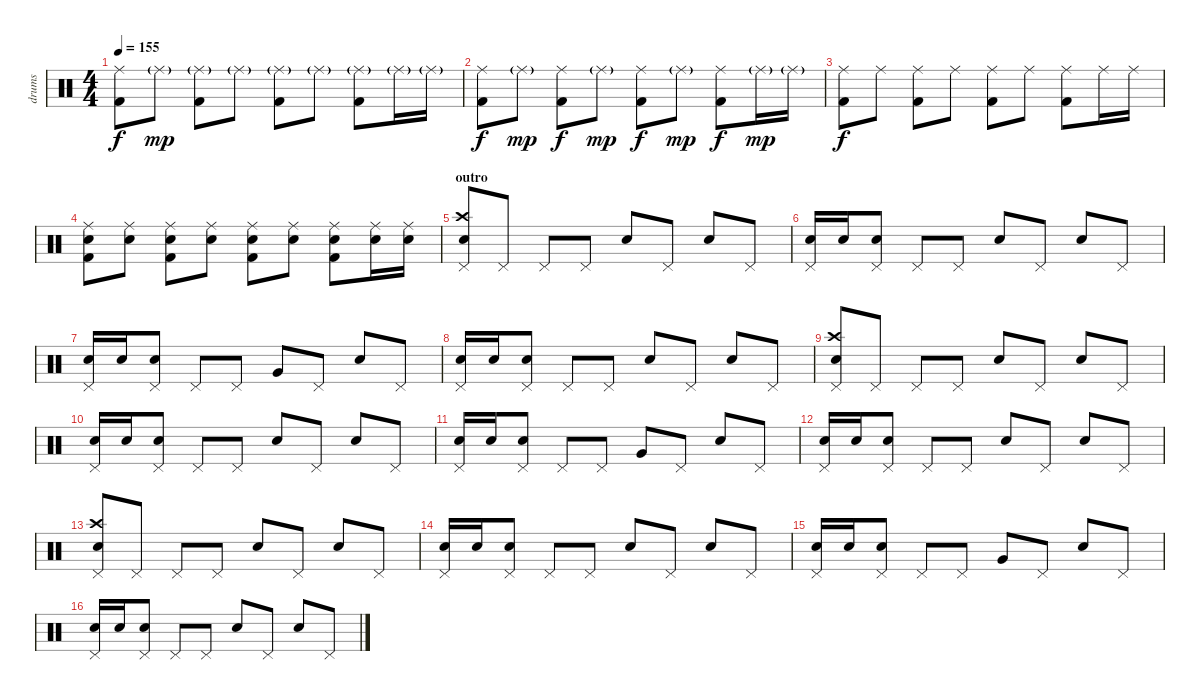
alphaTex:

\track ("drums" "drums") {instrument percussion}
\staff {score}
\articulation defaults
\ts (4 4)
\tempo 155
\clef neutral
\ks c
("Ride (middle)" "Kick (hit) 2").8{dy f} "Ride (middle)"{g}.8{dy mp} ("Ride (middle)"{g} "Kick (hit) 2").8 "Ride (middle)"{g}.8 ("Ride (middle)"{g} "Kick (hit) 2").8 "Ride (middle)"{g}.8 ("Ride (middle)"{g} "Kick (hit) 2").8 "Ride (middle)"{g}.16 "Ride (middle)"{g}.16 |
("Ride (middle)" "Kick (hit) 2").8{dy f} "Ride (middle)"{g}.8{dy mp} ("Ride (middle)" "Kick (hit) 2").8{dy f} "Ride (middle)"{g}.8{dy mp} ("Ride (middle)" "Kick (hit) 2").8{dy f} "Ride (middle)"{g}.8{dy mp} ("Ride (middle)" "Kick (hit) 2").8{dy f} "Ride (middle)"{g}.16{dy mp} "Ride (middle)"{g}.16 |
("Ride (middle)" "Kick (hit) 2").8{dy f} "Ride (middle)".8 ("Ride (middle)" "Kick (hit) 2").8 "Ride (middle)".8 ("Ride (middle)" "Kick (hit) 2").8 "Ride (middle)".8 ("Ride (middle)" "Kick (hit) 2").8 "Ride (middle)".16 "Ride (middle)".16 |
("Electric Snare (hit)" "Ride (middle)" "Kick (hit) 2").8 ("Electric Snare (hit)" "Ride (middle)").8 ("Electric Snare (hit)" "Ride (middle)" "Kick (hit) 2").8 ("Electric Snare (hit)" "Ride (middle)").8 ("Electric Snare (hit)" "Ride (middle)" "Kick (hit) 2").8 ("Electric Snare (hit)" "Ride (middle)").8 ("Electric Snare (hit)" "Ride (middle)" "Kick (hit) 2").8 ("Electric Snare (hit)" "Ride (middle)").16 ("Electric Snare (hit)" "Ride (middle)").16 |
\section ("" "outro")
("Electric Snare (hit)" "Crash high (hit)" "Pedal Hi-Hat (hit)").8 "Pedal Hi-Hat (hit)".8 "Pedal Hi-Hat (hit)".8 "Pedal Hi-Hat (hit)".8 "Electric Snare (hit)".8 "Pedal Hi-Hat (hit)".8 "Electric Snare (hit)".8 "Pedal Hi-Hat (hit)".8 |
("Electric Snare (hit)" "Pedal Hi-Hat (hit)").16 "Electric Snare (hit)".16 ("Electric Snare (hit)" "Pedal Hi-Hat (hit)").8 "Pedal Hi-Hat (hit)".8 "Pedal Hi-Hat (hit)".8 "Electric Snare (hit)".8 "Pedal Hi-Hat (hit)".8 "Electric Snare (hit)".8 "Pedal Hi-Hat (hit)".8 |
("Electric Snare (hit)" "Pedal Hi-Hat (hit)").16 "Electric Snare (hit)".16 ("Electric Snare (hit)" "Pedal Hi-Hat (hit)").8 "Pedal Hi-Hat (hit)".8 "Pedal Hi-Hat (hit)".8 "Very Low Tom (hit)".8 "Pedal Hi-Hat (hit)".8 "Electric Snare (hit)".8 "Pedal Hi-Hat (hit)".8 |
("Electric Snare (hit)" "Pedal Hi-Hat (hit)").16 "Electric Snare (hit)".16 ("Electric Snare (hit)" "Pedal Hi-Hat (hit)").8 "Pedal Hi-Hat (hit)".8 "Pedal Hi-Hat (hit)".8 "Electric Snare (hit)".8 "Pedal Hi-Hat (hit)".8 "Electric Snare (hit)".8 "Pedal Hi-Hat (hit)".8 |
("Electric Snare (hit)" "Crash high (hit)" "Pedal Hi-Hat (hit)").8 "Pedal Hi-Hat (hit)".8 "Pedal Hi-Hat (hit)".8 "Pedal Hi-Hat (hit)".8 "Electric Snare (hit)".8 "Pedal Hi-Hat (hit)".8 "Electric Snare (hit)".8 "Pedal Hi-Hat (hit)".8 |
("Electric Snare (hit)" "Pedal Hi-Hat (hit)").16 "Electric Snare (hit)".16 ("Electric Snare (hit)" "Pedal Hi-Hat (hit)").8 "Pedal Hi-Hat (hit)".8 "Pedal Hi-Hat (hit)".8 "Electric Snare (hit)".8 "Pedal Hi-Hat (hit)".8 "Electric Snare (hit)".8 "Pedal Hi-Hat (hit)".8 |
("Electric Snare (hit)" "Pedal Hi-Hat (hit)").16 "Electric Snare (hit)".16 ("Electric Snare (hit)" "Pedal Hi-Hat (hit)").8 "Pedal Hi-Hat (hit)".8 "Pedal Hi-Hat (hit)".8 "Very Low Tom (hit)".8 "Pedal Hi-Hat (hit)".8 "Electric Snare (hit)".8 "Pedal Hi-Hat (hit)".8 |
("Electric Snare (hit)" "Pedal Hi-Hat (hit)").16 "Electric Snare (hit)".16 ("Electric Snare (hit)" "Pedal Hi-Hat (hit)").8 "Pedal Hi-Hat (hit)".8 "Pedal Hi-Hat (hit)".8 "Electric Snare (hit)".8 "Pedal Hi-Hat (hit)".8 "Electric Snare (hit)".8 "Pedal Hi-Hat (hit)".8 |
("Electric Snare (hit)" "Crash high (hit)" "Pedal Hi-Hat (hit)").8 "Pedal Hi-Hat (hit)".8 "Pedal Hi-Hat (hit)".8 "Pedal Hi-Hat (hit)".8 "Electric Snare (hit)".8 "Pedal Hi-Hat (hit)".8 "Electric Snare (hit)".8 "Pedal Hi-Hat (hit)".8 |
("Electric Snare (hit)" "Pedal Hi-Hat (hit)").16 "Electric Snare (hit)".16 ("Electric Snare (hit)" "Pedal Hi-Hat (hit)").8 "Pedal Hi-Hat (hit)".8 "Pedal Hi-Hat (hit)".8 "Electric Snare (hit)".8 "Pedal Hi-Hat (hit)".8 "Electric Snare (hit)".8 "Pedal Hi-Hat (hit)".8 |
("Electric Snare (hit)" "Pedal Hi-Hat (hit)").16 "Electric Snare (hit)".16 ("Electric Snare (hit)" "Pedal Hi-Hat (hit)").8 "Pedal Hi-Hat (hit)".8 "Pedal Hi-Hat (hit)".8 "Very Low Tom (hit)".8 "Pedal Hi-Hat (hit)".8 "Electric Snare (hit)".8 "Pedal Hi-Hat (hit)".8 |
("Electric Snare (hit)" "Pedal Hi-Hat (hit)").16 "Electric Snare (hit)".16 ("Electric Snare (hit)" "Pedal Hi-Hat (hit)").8 "Pedal Hi-Hat (hit)".8 "Pedal Hi-Hat (hit)".8 "Electric Snare (hit)".8 "Pedal Hi-Hat (hit)".8 "Electric Snare (hit)".8 "Pedal Hi-Hat (hit)".8
